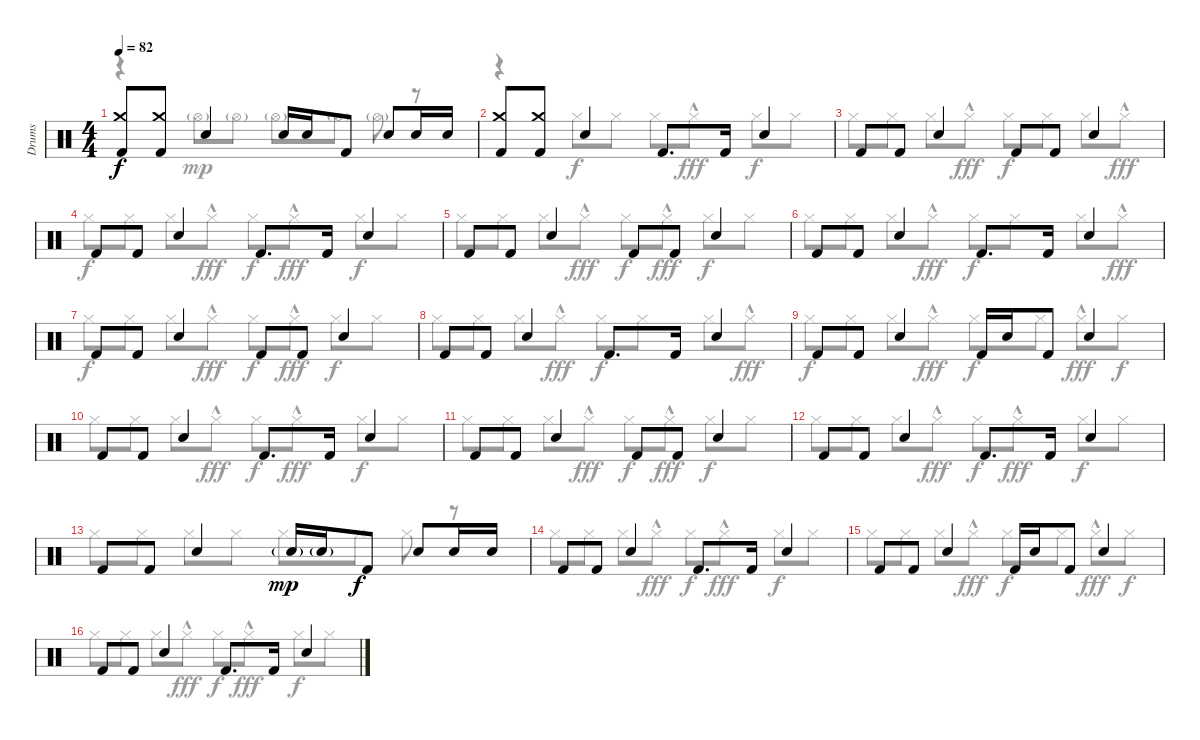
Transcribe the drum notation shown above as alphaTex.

\track ("Drums" "Drums") {instrument percussion}
\staff {score}
\articulation defaults
\voice
\ts (4 4)
\tempo 82
\clef neutral
\ks c
("Crash medium (hit)" "Kick (hit) 2").8{dy f} ("Crash medium (hit)" "Kick (hit) 2").8 "Snare (hit) 2".4 "Snare (hit) 2".16 "Snare (hit) 2".16 "Kick (hit) 2".8 "Snare (hit) 2".8 "Snare (hit) 2".16 "Snare (hit) 2".16 |
("Crash medium (hit)" "Kick (hit) 2").8 ("Crash medium (hit)" "Kick (hit) 2").8 "Snare (hit) 2".4 "Kick (hit) 2".8{d} "Kick (hit) 2".16 "Snare (hit) 2".4 |
"Kick (hit) 2".8 "Kick (hit) 2".8 "Snare (hit) 2".4 "Kick (hit) 2".8 "Kick (hit) 2".8 "Snare (hit) 2".4 |
"Kick (hit) 2".8 "Kick (hit) 2".8 "Snare (hit) 2".4 "Kick (hit) 2".8{d} "Kick (hit) 2".16 "Snare (hit) 2".4 |
"Kick (hit) 2".8 "Kick (hit) 2".8 "Snare (hit) 2".4 "Kick (hit) 2".8 "Kick (hit) 2".8 "Snare (hit) 2".4 |
"Kick (hit) 2".8 "Kick (hit) 2".8 "Snare (hit) 2".4 "Kick (hit) 2".8{d} "Kick (hit) 2".16 "Snare (hit) 2".4 |
"Kick (hit) 2".8 "Kick (hit) 2".8 "Snare (hit) 2".4 "Kick (hit) 2".8 "Kick (hit) 2".8 "Snare (hit) 2".4 |
"Kick (hit) 2".8 "Kick (hit) 2".8 "Snare (hit) 2".4 "Kick (hit) 2".8{d} "Kick (hit) 2".16 "Snare (hit) 2".4 |
"Kick (hit) 2".8 "Kick (hit) 2".8 "Snare (hit) 2".4 "Kick (hit) 2".16 "Snare (hit) 2".16 "Kick (hit) 2".8 "Snare (hit) 2".4 |
"Kick (hit) 2".8 "Kick (hit) 2".8 "Snare (hit) 2".4 "Kick (hit) 2".8{d} "Kick (hit) 2".16 "Snare (hit) 2".4 |
"Kick (hit) 2".8 "Kick (hit) 2".8 "Snare (hit) 2".4 "Kick (hit) 2".8 "Kick (hit) 2".8 "Snare (hit) 2".4 |
"Kick (hit) 2".8 "Kick (hit) 2".8 "Snare (hit) 2".4 "Kick (hit) 2".8{d} "Kick (hit) 2".16 "Snare (hit) 2".4 |
"Kick (hit) 2".8 "Kick (hit) 2".8 "Snare (hit) 2".4 "Snare (hit) 2"{g}.16{dy mp} "Snare (hit) 2"{g}.16 "Kick (hit) 2".8{dy f} "Snare (hit) 2".8 "Snare (hit) 2".16 "Snare (hit) 2".16 |
"Kick (hit) 2".8 "Kick (hit) 2".8 "Snare (hit) 2".4 "Kick (hit) 2".8{d} "Kick (hit) 2".16 "Snare (hit) 2".4 |
"Kick (hit) 2".8 "Kick (hit) 2".8 "Snare (hit) 2".4 "Kick (hit) 2".16 "Snare (hit) 2".16 "Kick (hit) 2".8 "Snare (hit) 2".4 |
"Kick (hit) 2".8 "Kick (hit) 2".8 "Snare (hit) 2".4 "Kick (hit) 2".8{d} "Kick (hit) 2".16 "Snare (hit) 2".4
\voice
\clef neutral
\ottava regular
\simile none
\ks c
r.4{dy f} "Hi-Hat (open)"{g}.8{dy mp} "Hi-Hat (open)"{g}.8 "Hi-Hat (open)"{g}.8 "Hi-Hat (open)"{g}.8 "Hi-Hat (open)"{g}.8 r.8 |
r.4 "Hi-Hat (closed)".8{dy f} "Hi-Hat (closed)".8 "Hi-Hat (closed)".8 "Hi-Hat (closed)"{hac}.8{dy fff} "Hi-Hat (closed)".8{dy f} "Hi-Hat (closed)".8 |
"Hi-Hat (closed)".8 "Hi-Hat (closed)".8 "Hi-Hat (closed)".8 "Hi-Hat (closed)"{hac}.8{dy fff} "Hi-Hat (closed)".8{dy f} "Hi-Hat (closed)".8 "Hi-Hat (closed)".8 "Hi-Hat (closed)"{hac}.8{dy fff} |
"Hi-Hat (closed)".8{dy f} "Hi-Hat (closed)".8 "Hi-Hat (closed)".8 "Hi-Hat (closed)"{hac}.8{dy fff} "Hi-Hat (closed)".8{dy f} "Hi-Hat (closed)"{hac}.8{dy fff} "Hi-Hat (closed)".8{dy f} "Hi-Hat (closed)".8 |
"Hi-Hat (closed)".8 "Hi-Hat (closed)".8 "Hi-Hat (closed)".8 "Hi-Hat (closed)"{hac}.8{dy fff} "Hi-Hat (closed)".8{dy f} "Hi-Hat (closed)"{hac}.8{dy fff} "Hi-Hat (closed)".8{dy f} "Hi-Hat (closed)".8 |
"Hi-Hat (closed)".8 "Hi-Hat (closed)".8 "Hi-Hat (closed)".8 "Hi-Hat (closed)"{hac}.8{dy fff} "Hi-Hat (closed)".8{dy f} "Hi-Hat (closed)".8 "Hi-Hat (closed)".8 "Hi-Hat (closed)"{hac}.8{dy fff} |
"Hi-Hat (closed)".8{dy f} "Hi-Hat (closed)".8 "Hi-Hat (closed)".8 "Hi-Hat (closed)"{hac}.8{dy fff} "Hi-Hat (closed)".8{dy f} "Hi-Hat (closed)"{hac}.8{dy fff} "Hi-Hat (closed)".8{dy f} "Hi-Hat (closed)".8 |
"Hi-Hat (closed)".8 "Hi-Hat (closed)".8 "Hi-Hat (closed)".8 "Hi-Hat (closed)"{hac}.8{dy fff} "Hi-Hat (closed)".8{dy f} "Hi-Hat (closed)".8 "Hi-Hat (closed)".8 "Hi-Hat (closed)"{hac}.8{dy fff} |
"Hi-Hat (closed)".8{dy f} "Hi-Hat (closed)".8 "Hi-Hat (closed)".8 "Hi-Hat (closed)"{hac}.8{dy fff} "Hi-Hat (closed)".8{dy f} "Hi-Hat (closed)".8 "Hi-Hat (closed)"{hac}.8{dy fff} "Hi-Hat (closed)".8{dy f} |
"Hi-Hat (closed)".8 "Hi-Hat (closed)".8 "Hi-Hat (closed)".8 "Hi-Hat (closed)"{hac}.8{dy fff} "Hi-Hat (closed)".8{dy f} "Hi-Hat (closed)"{hac}.8{dy fff} "Hi-Hat (closed)".8{dy f} "Hi-Hat (closed)".8 |
"Hi-Hat (closed)".8 "Hi-Hat (closed)".8 "Hi-Hat (closed)".8 "Hi-Hat (closed)"{hac}.8{dy fff} "Hi-Hat (closed)".8{dy f} "Hi-Hat (closed)"{hac}.8{dy fff} "Hi-Hat (closed)".8{dy f} "Hi-Hat (closed)".8 |
"Hi-Hat (closed)".8 "Hi-Hat (closed)".8 "Hi-Hat (closed)".8 "Hi-Hat (closed)"{hac}.8{dy fff} "Hi-Hat (closed)".8{dy f} "Hi-Hat (closed)"{hac}.8{dy fff} "Hi-Hat (closed)".8{dy f} "Hi-Hat (closed)".8 |
"Hi-Hat (closed)".8 "Hi-Hat (closed)".8 "Hi-Hat (closed)".8 "Hi-Hat (closed)".8 "Hi-Hat (closed)".8 "Hi-Hat (closed)".8 "Hi-Hat (closed)".8 r.8 |
"Hi-Hat (closed)".8 "Hi-Hat (closed)".8 "Hi-Hat (closed)".8 "Hi-Hat (closed)"{hac}.8{dy fff} "Hi-Hat (closed)".8{dy f} "Hi-Hat (closed)"{hac}.8{dy fff} "Hi-Hat (closed)".8{dy f} "Hi-Hat (closed)".8 |
"Hi-Hat (closed)".8 "Hi-Hat (closed)".8 "Hi-Hat (closed)".8 "Hi-Hat (closed)"{hac}.8{dy fff} "Hi-Hat (closed)".8{dy f} "Hi-Hat (closed)".8 "Hi-Hat (closed)"{hac}.8{dy fff} "Hi-Hat (closed)".8{dy f} |
"Hi-Hat (closed)".8 "Hi-Hat (closed)".8 "Hi-Hat (closed)".8 "Hi-Hat (closed)"{hac}.8{dy fff} "Hi-Hat (closed)".8{dy f} "Hi-Hat (closed)"{hac}.8{dy fff} "Hi-Hat (closed)".8{dy f} "Hi-Hat (closed)".8
